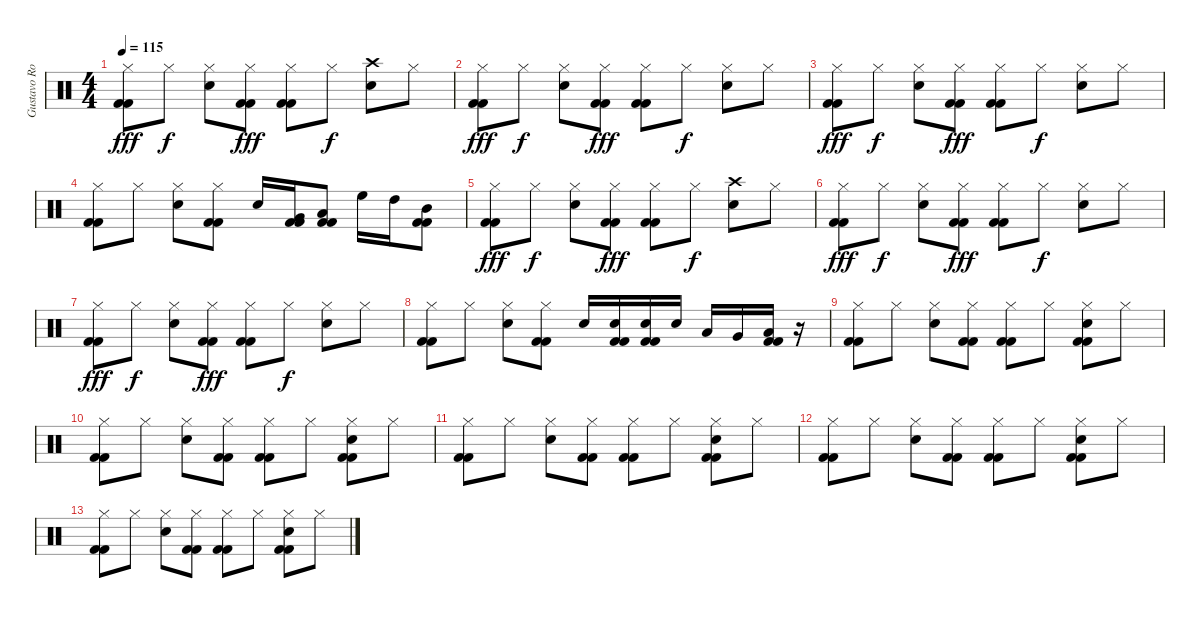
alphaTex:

\track ("Gustavo Rowek" "Gustavo Ro") {instrument percussion}
\staff {score}
\articulation defaults
\ts (4 4)
\tempo 115
\clef neutral
\ks c
("Kick (hit) 2" "Kick (hit) 2" "Hi-Hat (closed)").8{dy fff} "Hi-Hat (closed)".8{dy f} ("Snare (hit) 2" "Hi-Hat (closed)").8 ("Kick (hit) 2" "Kick (hit) 2" "Hi-Hat (closed)").8{dy fff} ("Kick (hit) 2" "Kick (hit) 2" "Hi-Hat (closed)").8 "Hi-Hat (closed)".8{dy f} ("Snare (hit) 2" "Crash high (hit)").8 "Hi-Hat (closed)".8 |
("Kick (hit) 2" "Kick (hit) 2" "Hi-Hat (closed)").8{dy fff} "Hi-Hat (closed)".8{dy f} ("Snare (hit) 2" "Hi-Hat (closed)").8 ("Kick (hit) 2" "Kick (hit) 2" "Hi-Hat (closed)").8{dy fff} ("Kick (hit) 2" "Kick (hit) 2" "Hi-Hat (closed)").8 "Hi-Hat (closed)".8{dy f} ("Snare (hit) 2" "Hi-Hat (closed)").8 "Hi-Hat (closed)".8 |
("Kick (hit) 2" "Kick (hit) 2" "Hi-Hat (closed)").8{dy fff} "Hi-Hat (closed)".8{dy f} ("Snare (hit) 2" "Hi-Hat (closed)").8 ("Kick (hit) 2" "Kick (hit) 2" "Hi-Hat (closed)").8{dy fff} ("Kick (hit) 2" "Kick (hit) 2" "Hi-Hat (closed)").8 "Hi-Hat (closed)".8{dy f} ("Snare (hit) 2" "Hi-Hat (closed)").8 "Hi-Hat (closed)".8 |
("Kick (hit) 2" "Kick (hit) 2" "Hi-Hat (closed)").8{volume 12} "Hi-Hat (closed)".8 ("Snare (hit) 2" "Hi-Hat (closed)").8 ("Kick (hit) 2" "Kick (hit) 2" "Hi-Hat (closed)").8 "Snare (hit) 2".16 ("Kick (hit) 2" "Kick (hit) 2" "Very Low Tom (hit)").16 ("Kick (hit) 2" "Kick (hit) 2" "Low Floor Tom (hit)").8 "High Floor Tom (hit)".16 "High Tom (hit)".16 ("Kick (hit) 2" "Kick (hit) 2" "Mid Tom (hit)").8 |
("Kick (hit) 2" "Kick (hit) 2" "Hi-Hat (closed)").8{dy fff volume 11} "Hi-Hat (closed)".8{dy f} ("Snare (hit) 2" "Hi-Hat (closed)").8 ("Kick (hit) 2" "Kick (hit) 2" "Hi-Hat (closed)").8{dy fff} ("Kick (hit) 2" "Kick (hit) 2" "Hi-Hat (closed)").8 "Hi-Hat (closed)".8{dy f} ("Snare (hit) 2" "Crash high (hit)").8 "Hi-Hat (closed)".8 |
("Kick (hit) 2" "Kick (hit) 2" "Hi-Hat (closed)").8{dy fff volume 10} "Hi-Hat (closed)".8{dy f} ("Snare (hit) 2" "Hi-Hat (closed)").8 ("Kick (hit) 2" "Kick (hit) 2" "Hi-Hat (closed)").8{dy fff} ("Kick (hit) 2" "Kick (hit) 2" "Hi-Hat (closed)").8 "Hi-Hat (closed)".8{dy f} ("Snare (hit) 2" "Hi-Hat (closed)").8 "Hi-Hat (closed)".8 |
("Kick (hit) 2" "Kick (hit) 2" "Hi-Hat (closed)").8{dy fff volume 9} "Hi-Hat (closed)".8{dy f} ("Snare (hit) 2" "Hi-Hat (closed)").8 ("Kick (hit) 2" "Kick (hit) 2" "Hi-Hat (closed)").8{dy fff} ("Kick (hit) 2" "Kick (hit) 2" "Hi-Hat (closed)").8 "Hi-Hat (closed)".8{dy f} ("Snare (hit) 2" "Hi-Hat (closed)").8 "Hi-Hat (closed)".8 |
("Kick (hit) 2" "Kick (hit) 2" "Hi-Hat (closed)").8{volume 8} "Hi-Hat (closed)".8 ("Snare (hit) 2" "Hi-Hat (closed)").8 ("Kick (hit) 2" "Kick (hit) 2" "Hi-Hat (closed)").8 "Snare (hit) 2".16 ("Kick (hit) 2" "Kick (hit) 2" "Snare (hit) 2").16 ("Kick (hit) 2" "Kick (hit) 2" "Snare (hit) 2").16 "Snare (hit) 2".16 "Low Tom (hit)".16 "Very Low Tom (hit)".16 ("Kick (hit) 2" "Kick (hit) 2" "Low Floor Tom (hit)").16 r.16 |
("Kick (hit) 2" "Kick (hit) 2" "Hi-Hat (closed)").8{volume 7} "Hi-Hat (closed)".8 ("Snare (hit) 2" "Hi-Hat (closed)").8 ("Kick (hit) 2" "Kick (hit) 2" "Hi-Hat (closed)").8 ("Kick (hit) 2" "Kick (hit) 2" "Hi-Hat (closed)").8 "Hi-Hat (closed)".8 ("Kick (hit) 2" "Kick (hit) 2" "Snare (hit) 2" "Hi-Hat (closed)").8 "Hi-Hat (closed)".8 |
("Kick (hit) 2" "Kick (hit) 2" "Hi-Hat (closed)").8{volume 6} "Hi-Hat (closed)".8 ("Snare (hit) 2" "Hi-Hat (closed)").8 ("Kick (hit) 2" "Kick (hit) 2" "Hi-Hat (closed)").8 ("Kick (hit) 2" "Kick (hit) 2" "Hi-Hat (closed)").8 "Hi-Hat (closed)".8 ("Kick (hit) 2" "Kick (hit) 2" "Snare (hit) 2" "Hi-Hat (closed)").8 "Hi-Hat (closed)".8 |
("Kick (hit) 2" "Kick (hit) 2" "Hi-Hat (closed)").8{volume 5} "Hi-Hat (closed)".8 ("Snare (hit) 2" "Hi-Hat (closed)").8 ("Kick (hit) 2" "Kick (hit) 2" "Hi-Hat (closed)").8 ("Kick (hit) 2" "Kick (hit) 2" "Hi-Hat (closed)").8 "Hi-Hat (closed)".8 ("Kick (hit) 2" "Kick (hit) 2" "Snare (hit) 2" "Hi-Hat (closed)").8 "Hi-Hat (closed)".8 |
("Kick (hit) 2" "Kick (hit) 2" "Hi-Hat (closed)").8{volume 4} "Hi-Hat (closed)".8 ("Snare (hit) 2" "Hi-Hat (closed)").8 ("Kick (hit) 2" "Kick (hit) 2" "Hi-Hat (closed)").8 ("Kick (hit) 2" "Kick (hit) 2" "Hi-Hat (closed)").8 "Hi-Hat (closed)".8 ("Kick (hit) 2" "Kick (hit) 2" "Snare (hit) 2" "Hi-Hat (closed)").8 "Hi-Hat (closed)".8 |
("Kick (hit) 2" "Kick (hit) 2" "Hi-Hat (closed)").8{volume 3} "Hi-Hat (closed)".8 ("Snare (hit) 2" "Hi-Hat (closed)").8 ("Kick (hit) 2" "Kick (hit) 2" "Hi-Hat (closed)").8 ("Kick (hit) 2" "Kick (hit) 2" "Hi-Hat (closed)").8 "Hi-Hat (closed)".8 ("Kick (hit) 2" "Kick (hit) 2" "Snare (hit) 2" "Hi-Hat (closed)").8 "Hi-Hat (closed)".8
